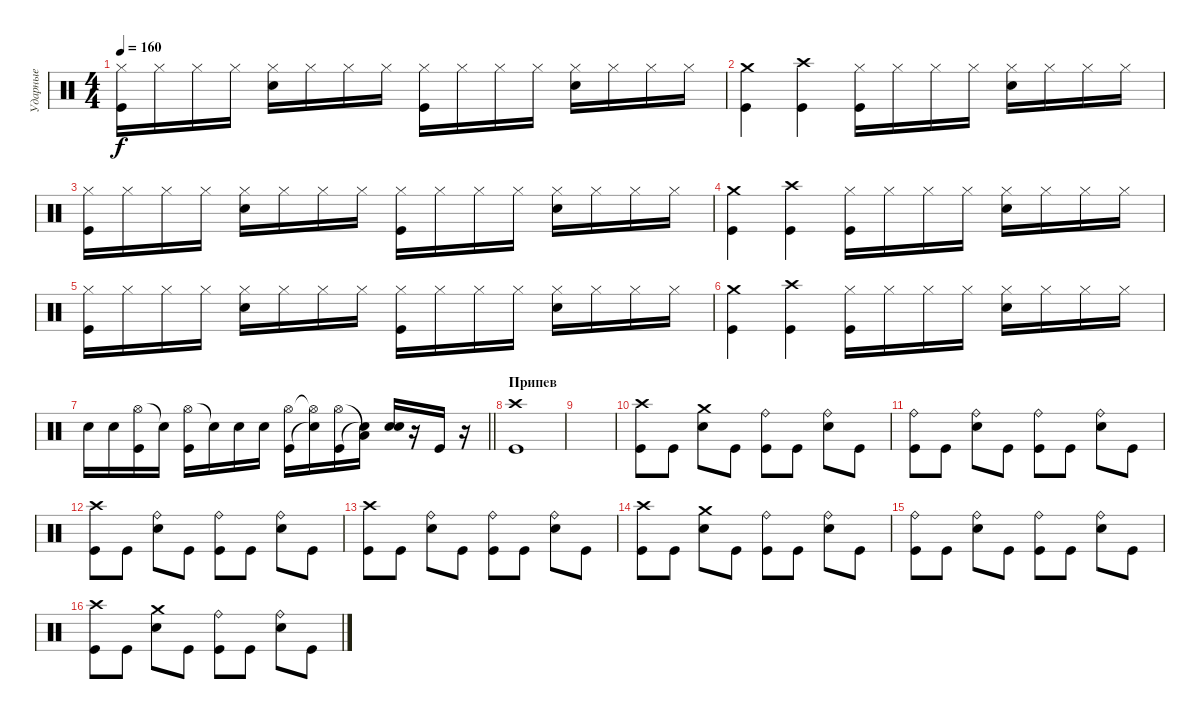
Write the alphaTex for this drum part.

\track ("Ударные" "Ударные") {instrument percussion}
\staff {score}
\articulation defaults
\ts (4 4)
\tempo 160
\clef neutral
\ks c
("Hi-Hat (closed)" "Kick (hit)").16{dy f} "Hi-Hat (closed)".16 "Hi-Hat (closed)".16 "Hi-Hat (closed)".16 ("Hi-Hat (closed)" "Electric Snare (hit)").16 "Hi-Hat (closed)".16 "Hi-Hat (closed)".16 "Hi-Hat (closed)".16 ("Hi-Hat (closed)" "Kick (hit)").16 "Hi-Hat (closed)".16 "Hi-Hat (closed)".16 "Hi-Hat (closed)".16 ("Hi-Hat (closed)" "Electric Snare (hit)").16 "Hi-Hat (closed)".16 "Hi-Hat (closed)".16 "Hi-Hat (closed)".16 |
("Crash medium (hit)" "Kick (hit)").4 ("Crash high (hit)" "Kick (hit)").4 ("Hi-Hat (closed)" "Kick (hit)").16 "Hi-Hat (closed)".16 "Hi-Hat (closed)".16 "Hi-Hat (closed)".16 ("Hi-Hat (closed)" "Electric Snare (hit)").16 "Hi-Hat (closed)".16 "Hi-Hat (closed)".16 "Hi-Hat (closed)".16 |
("Hi-Hat (closed)" "Kick (hit)").16 "Hi-Hat (closed)".16 "Hi-Hat (closed)".16 "Hi-Hat (closed)".16 ("Hi-Hat (closed)" "Electric Snare (hit)").16 "Hi-Hat (closed)".16 "Hi-Hat (closed)".16 "Hi-Hat (closed)".16 ("Hi-Hat (closed)" "Kick (hit)").16 "Hi-Hat (closed)".16 "Hi-Hat (closed)".16 "Hi-Hat (closed)".16 ("Hi-Hat (closed)" "Electric Snare (hit)").16 "Hi-Hat (closed)".16 "Hi-Hat (closed)".16 "Hi-Hat (closed)".16 |
("Crash medium (hit)" "Kick (hit)").4 ("Crash high (hit)" "Kick (hit)").4 ("Hi-Hat (closed)" "Kick (hit)").16 "Hi-Hat (closed)".16 "Hi-Hat (closed)".16 "Hi-Hat (closed)".16 ("Hi-Hat (closed)" "Electric Snare (hit)").16 "Hi-Hat (closed)".16 "Hi-Hat (closed)".16 "Hi-Hat (closed)".16 |
("Hi-Hat (closed)" "Kick (hit)").16 "Hi-Hat (closed)".16 "Hi-Hat (closed)".16 "Hi-Hat (closed)".16 ("Hi-Hat (closed)" "Electric Snare (hit)").16 "Hi-Hat (closed)".16 "Hi-Hat (closed)".16 "Hi-Hat (closed)".16 ("Hi-Hat (closed)" "Kick (hit)").16 "Hi-Hat (closed)".16 "Hi-Hat (closed)".16 "Hi-Hat (closed)".16 ("Hi-Hat (closed)" "Electric Snare (hit)").16 "Hi-Hat (closed)".16 "Hi-Hat (closed)".16 "Hi-Hat (closed)".16 |
("Crash medium (hit)" "Kick (hit)").4 ("Crash high (hit)" "Kick (hit)").4 ("Hi-Hat (closed)" "Kick (hit)").16 "Hi-Hat (closed)".16 "Hi-Hat (closed)".16 "Hi-Hat (closed)".16 ("Hi-Hat (closed)" "Electric Snare (hit)").16 "Hi-Hat (closed)".16 "Hi-Hat (closed)".16 "Hi-Hat (closed)".16 |
\barLineRight lightlight "Electric Snare (hit)".16 "Electric Snare (hit)".16
("Hi-Hat (open)" "Kick (hit)").16 "Snare (hit)"{t}.16 ("Hi-Hat (open)" "Kick (hit)").16 "Snare (hit)"{t}.16 "Electric Snare (hit)".16 "Electric Snare (hit)".16 ("Hi-Hat (open)" "Kick (hit)").16 ("Hi-Hat (open)"{t} "Snare (hit)"{t}).16 ("Hi-Hat (open)" "Kick (hit)").16 ("Low Tom (hit)"{t} "Snare (hit)"{t}).16 ("Electric Snare (hit)" "Electric Snare (hit)").16 r.16 "Kick (hit)".16 r.16 |
\section ("" "Припев")
("Crash high (hit)" "Kick (hit)").1 |
|
("Crash high (hit)" "Kick (hit)").8 "Kick (hit)".8 ("Crash medium (hit)" "Electric Snare (hit)").8 "Kick (hit)".8 ("Ride (bell)" "Kick (hit)").8 "Kick (hit)".8 ("Ride (bell)" "Electric Snare (hit)").8 "Kick (hit)".8 |
("Ride (bell)" "Kick (hit)").8 "Kick (hit)".8 ("Ride (bell)" "Electric Snare (hit)").8 "Kick (hit)".8 ("Ride (bell)" "Kick (hit)").8 "Kick (hit)".8 ("Ride (bell)" "Electric Snare (hit)").8 "Kick (hit)".8 |
("Crash high (hit)" "Kick (hit)").8 "Kick (hit)".8 ("Ride (bell)" "Electric Snare (hit)").8 "Kick (hit)".8 ("Ride (bell)" "Kick (hit)").8 "Kick (hit)".8 ("Ride (bell)" "Electric Snare (hit)").8 "Kick (hit)".8 |
("Crash high (hit)" "Kick (hit)").8 "Kick (hit)".8 ("Ride (bell)" "Electric Snare (hit)").8 "Kick (hit)".8 ("Ride (bell)" "Kick (hit)").8 "Kick (hit)".8 ("Ride (bell)" "Electric Snare (hit)").8 "Kick (hit)".8 |
("Crash high (hit)" "Kick (hit)").8 "Kick (hit)".8 ("Crash medium (hit)" "Electric Snare (hit)").8 "Kick (hit)".8 ("Ride (bell)" "Kick (hit)").8 "Kick (hit)".8 ("Ride (bell)" "Electric Snare (hit)").8 "Kick (hit)".8 |
("Ride (bell)" "Kick (hit)").8 "Kick (hit)".8 ("Ride (bell)" "Electric Snare (hit)").8 "Kick (hit)".8 ("Ride (bell)" "Kick (hit)").8 "Kick (hit)".8 ("Ride (bell)" "Electric Snare (hit)").8 "Kick (hit)".8 |
("Crash high (hit)" "Kick (hit)").8 "Kick (hit)".8 ("Crash medium (hit)" "Electric Snare (hit)").8 "Kick (hit)".8 ("Ride (bell)" "Kick (hit)").8 "Kick (hit)".8 ("Ride (bell)" "Electric Snare (hit)").8 "Kick (hit)".8
